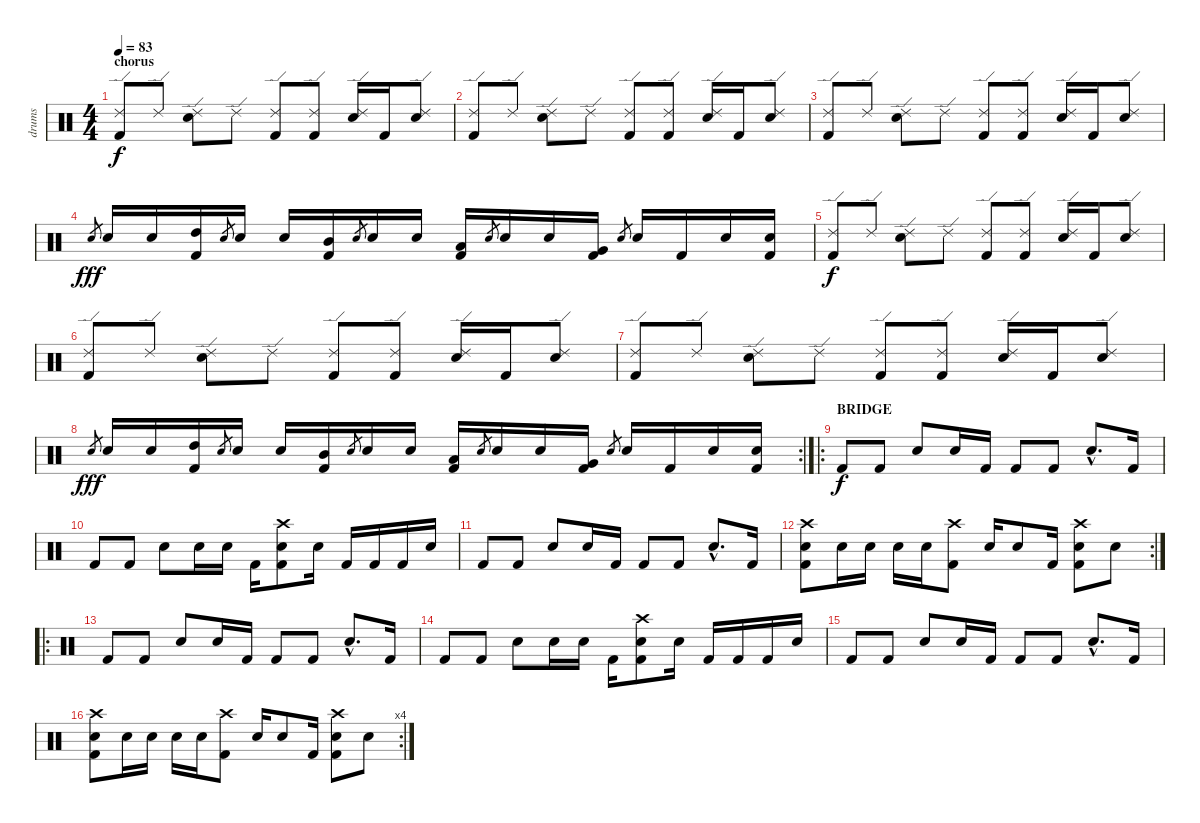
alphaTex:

\track ("drums" "drums") {instrument percussion}
\staff {score}
\articulation defaults
\ts (4 4)
\section ("" "chorus")
\tempo 83
\clef neutral
\ks c
("Ride (edge) 2" "Kick (hit) 2").8{dy f} "Ride (edge) 2".8 ("Ride (edge) 2" "Snare (hit) 2").8 "Ride (edge) 2".8 ("Ride (edge) 2" "Kick (hit) 2").8 ("Ride (edge) 2" "Kick (hit) 2").8 ("Ride (edge) 2" "Snare (hit) 2").16 "Kick (hit) 2".16 ("Ride (edge) 2" "Snare (hit) 2").8 |
("Ride (edge) 2" "Kick (hit) 2").8 "Ride (edge) 2".8 ("Ride (edge) 2" "Snare (hit) 2").8 "Ride (edge) 2".8 ("Ride (edge) 2" "Kick (hit) 2").8 ("Ride (edge) 2" "Kick (hit) 2").8 ("Ride (edge) 2" "Snare (hit) 2").16 "Kick (hit) 2".16 ("Ride (edge) 2" "Snare (hit) 2").8 |
("Ride (edge) 2" "Kick (hit) 2").8 "Ride (edge) 2".8 ("Ride (edge) 2" "Snare (hit) 2").8 "Ride (edge) 2".8 ("Ride (edge) 2" "Kick (hit) 2").8 ("Ride (edge) 2" "Kick (hit) 2").8 ("Ride (edge) 2" "Snare (hit) 2").16 "Kick (hit) 2".16 ("Ride (edge) 2" "Snare (hit) 2").8 |
"Snare (hit) 2".8{gr dy fff} "Snare (hit) 2".16 "Snare (hit) 2".16 ("High Tom (hit)" "Kick (hit) 2").16 "Snare (hit) 2".8{gr} "Snare (hit) 2".16 "Snare (hit) 2".16 ("Mid Tom (hit)" "Kick (hit) 2").16 "Snare (hit) 2".8{gr} "Snare (hit) 2".16 "Snare (hit) 2".16 ("Low Tom (hit)" "Kick (hit) 2").16 "Snare (hit) 2".8{gr} "Snare (hit) 2".16 "Snare (hit) 2".16 ("Very Low Tom (hit)" "Kick (hit) 2").16 "Snare (hit) 2".8{gr} "Snare (hit) 2".16 "Kick (hit) 2".16 "Snare (hit) 2".16 ("Snare (hit) 2" "Kick (hit) 2").16 |
("Ride (edge) 2" "Kick (hit) 2").8{dy f} "Ride (edge) 2".8 ("Ride (edge) 2" "Snare (hit) 2").8 "Ride (edge) 2".8 ("Ride (edge) 2" "Kick (hit) 2").8 ("Ride (edge) 2" "Kick (hit) 2").8 ("Ride (edge) 2" "Snare (hit) 2").16 "Kick (hit) 2".16 ("Ride (edge) 2" "Snare (hit) 2").8 |
("Ride (edge) 2" "Kick (hit) 2").8 "Ride (edge) 2".8 ("Ride (edge) 2" "Snare (hit) 2").8 "Ride (edge) 2".8 ("Ride (edge) 2" "Kick (hit) 2").8 ("Ride (edge) 2" "Kick (hit) 2").8 ("Ride (edge) 2" "Snare (hit) 2").16 "Kick (hit) 2".16 ("Ride (edge) 2" "Snare (hit) 2").8 |
("Ride (edge) 2" "Kick (hit) 2").8 "Ride (edge) 2".8 ("Ride (edge) 2" "Snare (hit) 2").8 "Ride (edge) 2".8 ("Ride (edge) 2" "Kick (hit) 2").8 ("Ride (edge) 2" "Kick (hit) 2").8 ("Ride (edge) 2" "Snare (hit) 2").16 "Kick (hit) 2".16 ("Ride (edge) 2" "Snare (hit) 2").8 |
\rc 2 "Snare (hit) 2".8{gr dy fff} "Snare (hit) 2".16 "Snare (hit) 2".16
("High Tom (hit)" "Kick (hit) 2").16 "Snare (hit) 2".8{gr} "Snare (hit) 2".16 "Snare (hit) 2".16 ("Mid Tom (hit)" "Kick (hit) 2").16 "Snare (hit) 2".8{gr} "Snare (hit) 2".16 "Snare (hit) 2".16 ("Low Tom (hit)" "Kick (hit) 2").16 "Snare (hit) 2".8{gr} "Snare (hit) 2".16 "Snare (hit) 2".16 ("Very Low Tom (hit)" "Kick (hit) 2").16 "Snare (hit) 2".8{gr} "Snare (hit) 2".16 "Kick (hit) 2".16 "Snare (hit) 2".16 ("Snare (hit) 2" "Kick (hit) 2").16 |
\ro
\section ("" "BRIDGE")
"Kick (hit) 2".8{dy f} "Kick (hit) 2".8 "Snare (hit) 2".8 "Snare (hit) 2".16 "Kick (hit) 2".16 "Kick (hit) 2".8 "Kick (hit) 2".8 "Snare (hit) 2"{hac}.8{d} "Kick (hit) 2".16 |
"Kick (hit) 2".8 "Kick (hit) 2".8 "Snare (hit) 2".8 "Snare (hit) 2".16 "Snare (hit) 2".16 "Kick (hit) 2".16 ("Crash high (hit)" "Snare (hit) 2" "Kick (hit) 2").8 "Snare (hit) 2".16 "Kick (hit) 2".16 "Kick (hit) 2".16 "Kick (hit) 2".16 "Snare (hit) 2".16 |
"Kick (hit) 2".8 "Kick (hit) 2".8 "Snare (hit) 2".8 "Snare (hit) 2".16 "Kick (hit) 2".16 "Kick (hit) 2".8 "Kick (hit) 2".8 "Snare (hit) 2"{hac}.8{d} "Kick (hit) 2".16 |
\rc 2
("Crash high (hit)" "Snare (hit) 2" "Kick (hit) 2").8 "Snare (hit) 2".16 "Snare (hit) 2".16 "Snare (hit) 2".16 "Snare (hit) 2".16 ("Crash high (hit)" "Kick (hit) 2").8 "Snare (hit) 2".16 "Snare (hit) 2".8 "Kick (hit) 2".16 ("Crash high (hit)" "Snare (hit) 2" "Kick (hit) 2").8 "Snare (hit) 2".8 |
\ro "Kick (hit) 2".8 "Kick (hit) 2".8 "Snare (hit) 2".8 "Snare (hit) 2".16 "Kick (hit) 2".16 "Kick (hit) 2".8 "Kick (hit) 2".8 "Snare (hit) 2"{hac}.8{d} "Kick (hit) 2".16
|
"Kick (hit) 2".8 "Kick (hit) 2".8 "Snare (hit) 2".8 "Snare (hit) 2".16 "Snare (hit) 2".16 "Kick (hit) 2".16 ("Crash high (hit)" "Snare (hit) 2" "Kick (hit) 2").8 "Snare (hit) 2".16 "Kick (hit) 2".16 "Kick (hit) 2".16 "Kick (hit) 2".16 "Snare (hit) 2".16 |
"Kick (hit) 2".8 "Kick (hit) 2".8 "Snare (hit) 2".8 "Snare (hit) 2".16 "Kick (hit) 2".16 "Kick (hit) 2".8 "Kick (hit) 2".8 "Snare (hit) 2"{hac}.8{d} "Kick (hit) 2".16 |
\rc 4
("Crash high (hit)" "Snare (hit) 2" "Kick (hit) 2").8 "Snare (hit) 2".16 "Snare (hit) 2".16 "Snare (hit) 2".16 "Snare (hit) 2".16 ("Crash high (hit)" "Kick (hit) 2").8 "Snare (hit) 2".16 "Snare (hit) 2".8 "Kick (hit) 2".16 ("Crash high (hit)" "Snare (hit) 2" "Kick (hit) 2").8 "Snare (hit) 2".8
